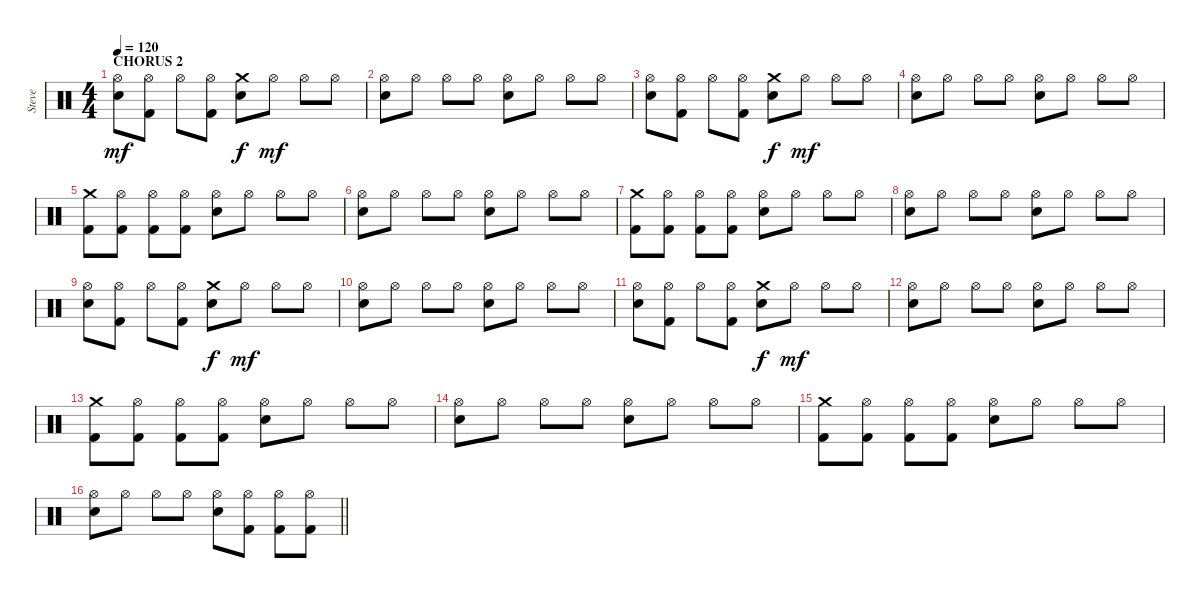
\track ("Steve" "Steve") {instrument percussion}
\staff {score}
\articulation defaults
\ts (4 4)
\section ("" "CHORUS 2")
\tempo 120
\clef neutral
\ks c
("Hi-Hat (open)" "Electric Snare (hit)").8{dy mf} ("Hi-Hat (open)" "Kick (hit) 2").8 "Hi-Hat (open)".8 ("Hi-Hat (open)" "Kick (hit) 2").8 ("Crash medium (hit)" "Electric Snare (hit)").8{dy f} "Hi-Hat (open)".8{dy mf} "Hi-Hat (open)".8 "Hi-Hat (open)".8 |
("Hi-Hat (open)" "Electric Snare (hit)").8 "Hi-Hat (open)".8 "Hi-Hat (open)".8 "Hi-Hat (open)".8 ("Hi-Hat (open)" "Electric Snare (hit)").8 "Hi-Hat (open)".8 "Hi-Hat (open)".8 "Hi-Hat (open)".8 |
("Hi-Hat (open)" "Electric Snare (hit)").8 ("Hi-Hat (open)" "Kick (hit) 2").8 "Hi-Hat (open)".8 ("Hi-Hat (open)" "Kick (hit) 2").8 ("Crash medium (hit)" "Electric Snare (hit)").8{dy f} "Hi-Hat (open)".8{dy mf} "Hi-Hat (open)".8 "Hi-Hat (open)".8 |
("Hi-Hat (open)" "Electric Snare (hit)").8 "Hi-Hat (open)".8 "Hi-Hat (open)".8 "Hi-Hat (open)".8 ("Hi-Hat (open)" "Electric Snare (hit)").8 "Hi-Hat (open)".8 "Hi-Hat (open)".8 "Hi-Hat (open)".8 |
("Crash medium (hit)" "Kick (hit) 2").8 ("Hi-Hat (open)" "Kick (hit) 2").8 ("Hi-Hat (open)" "Kick (hit) 2").8 ("Hi-Hat (open)" "Kick (hit) 2").8 ("Hi-Hat (open)" "Electric Snare (hit)").8 "Hi-Hat (open)".8 "Hi-Hat (open)".8 "Hi-Hat (open)".8 |
("Hi-Hat (open)" "Electric Snare (hit)").8 "Hi-Hat (open)".8 "Hi-Hat (open)".8 "Hi-Hat (open)".8 ("Hi-Hat (open)" "Electric Snare (hit)").8 "Hi-Hat (open)".8 "Hi-Hat (open)".8 "Hi-Hat (open)".8 |
("Crash medium (hit)" "Kick (hit) 2").8 ("Hi-Hat (open)" "Kick (hit) 2").8 ("Hi-Hat (open)" "Kick (hit) 2").8 ("Hi-Hat (open)" "Kick (hit) 2").8 ("Hi-Hat (open)" "Electric Snare (hit)").8 "Hi-Hat (open)".8 "Hi-Hat (open)".8 "Hi-Hat (open)".8 |
("Hi-Hat (open)" "Electric Snare (hit)").8 "Hi-Hat (open)".8 "Hi-Hat (open)".8 "Hi-Hat (open)".8 ("Hi-Hat (open)" "Electric Snare (hit)").8 "Hi-Hat (open)".8 "Hi-Hat (open)".8 "Hi-Hat (open)".8 |
("Hi-Hat (open)" "Electric Snare (hit)").8 ("Hi-Hat (open)" "Kick (hit) 2").8 "Hi-Hat (open)".8 ("Hi-Hat (open)" "Kick (hit) 2").8 ("Crash medium (hit)" "Electric Snare (hit)").8{dy f} "Hi-Hat (open)".8{dy mf} "Hi-Hat (open)".8 "Hi-Hat (open)".8 |
("Hi-Hat (open)" "Electric Snare (hit)").8 "Hi-Hat (open)".8 "Hi-Hat (open)".8 "Hi-Hat (open)".8 ("Hi-Hat (open)" "Electric Snare (hit)").8 "Hi-Hat (open)".8 "Hi-Hat (open)".8 "Hi-Hat (open)".8 |
("Hi-Hat (open)" "Electric Snare (hit)").8 ("Hi-Hat (open)" "Kick (hit) 2").8 "Hi-Hat (open)".8 ("Hi-Hat (open)" "Kick (hit) 2").8 ("Crash medium (hit)" "Electric Snare (hit)").8{dy f} "Hi-Hat (open)".8{dy mf} "Hi-Hat (open)".8 "Hi-Hat (open)".8 |
("Hi-Hat (open)" "Electric Snare (hit)").8 "Hi-Hat (open)".8 "Hi-Hat (open)".8 "Hi-Hat (open)".8 ("Hi-Hat (open)" "Electric Snare (hit)").8 "Hi-Hat (open)".8 "Hi-Hat (open)".8 "Hi-Hat (open)".8 |
("Crash medium (hit)" "Kick (hit) 2").8 ("Hi-Hat (open)" "Kick (hit) 2").8 ("Hi-Hat (open)" "Kick (hit) 2").8 ("Hi-Hat (open)" "Kick (hit) 2").8 ("Hi-Hat (open)" "Electric Snare (hit)").8 "Hi-Hat (open)".8 "Hi-Hat (open)".8 "Hi-Hat (open)".8 |
("Hi-Hat (open)" "Electric Snare (hit)").8 "Hi-Hat (open)".8 "Hi-Hat (open)".8 "Hi-Hat (open)".8 ("Hi-Hat (open)" "Electric Snare (hit)").8 "Hi-Hat (open)".8 "Hi-Hat (open)".8 "Hi-Hat (open)".8 |
("Crash medium (hit)" "Kick (hit) 2").8 ("Hi-Hat (open)" "Kick (hit) 2").8 ("Hi-Hat (open)" "Kick (hit) 2").8 ("Hi-Hat (open)" "Kick (hit) 2").8 ("Hi-Hat (open)" "Electric Snare (hit)").8 "Hi-Hat (open)".8 "Hi-Hat (open)".8 "Hi-Hat (open)".8 |
\barLineRight lightlight
("Hi-Hat (open)" "Electric Snare (hit)").8 "Hi-Hat (open)".8 "Hi-Hat (open)".8 "Hi-Hat (open)".8 ("Hi-Hat (open)" "Electric Snare (hit)").8 ("Hi-Hat (open)" "Kick (hit) 2").8 ("Hi-Hat (open)" "Kick (hit) 2").8 ("Hi-Hat (open)" "Kick (hit) 2").8
